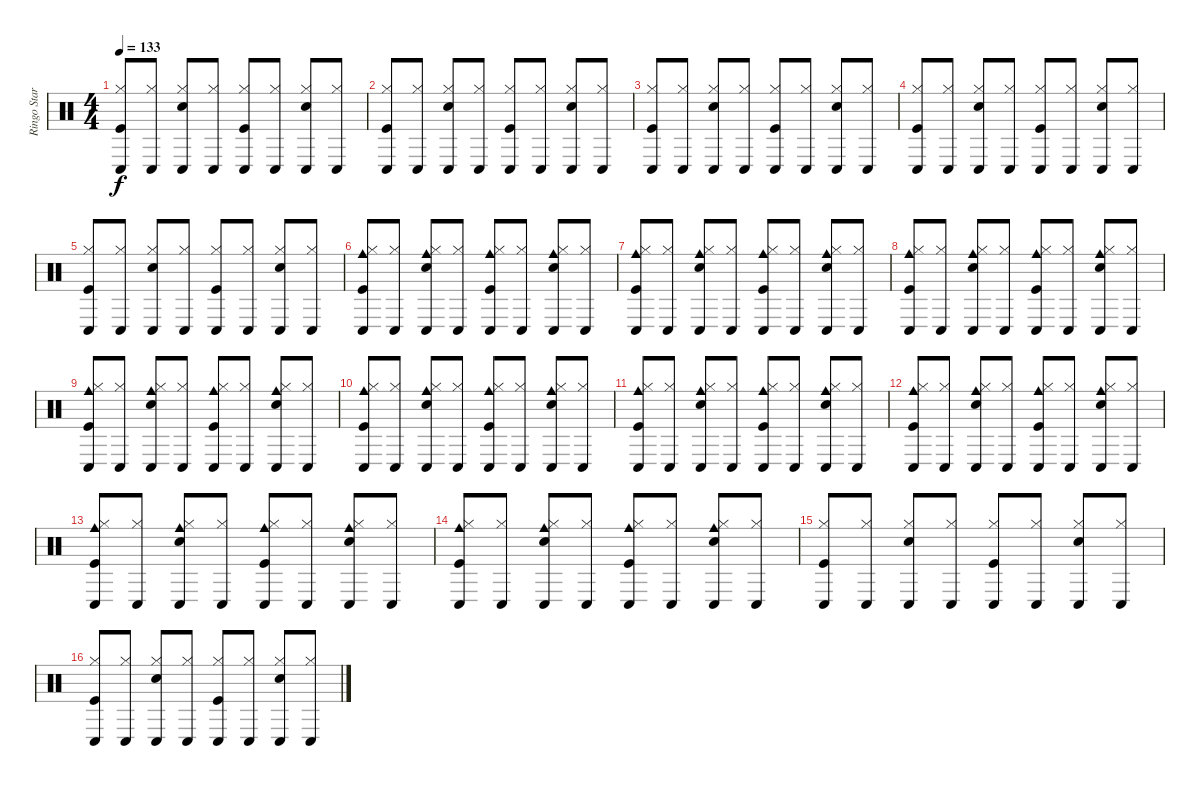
\track ("Ringo Starr - Drums" "Ringo Star") {instrument percussion}
\staff {score}
\articulation defaults
\ts (4 4)
\tempo 133
\clef neutral
\ks c
("Conga low (hit)" "Hi-Hat (closed)" "Kick (hit)").8{dy f} ("Conga low (hit)" "Hi-Hat (closed)").8 ("Conga low (hit)" "Hi-Hat (closed)" "Snare (hit) 2").8 ("Conga low (hit)" "Hi-Hat (closed)").8 ("Conga low (hit)" "Hi-Hat (closed)" "Kick (hit)").8 ("Conga low (hit)" "Hi-Hat (closed)").8 ("Conga low (hit)" "Hi-Hat (closed)" "Snare (hit) 2").8 ("Conga low (hit)" "Hi-Hat (closed)").8 |
("Conga low (hit)" "Hi-Hat (closed)" "Kick (hit)").8 ("Conga low (hit)" "Hi-Hat (closed)").8 ("Conga low (hit)" "Hi-Hat (closed)" "Snare (hit) 2").8 ("Conga low (hit)" "Hi-Hat (closed)").8 ("Conga low (hit)" "Hi-Hat (closed)" "Kick (hit)").8 ("Conga low (hit)" "Hi-Hat (closed)").8 ("Conga low (hit)" "Hi-Hat (closed)" "Snare (hit) 2").8 ("Conga low (hit)" "Hi-Hat (closed)").8 |
("Conga low (hit)" "Hi-Hat (closed)" "Kick (hit)").8 ("Conga low (hit)" "Hi-Hat (closed)").8 ("Conga low (hit)" "Hi-Hat (closed)" "Snare (hit) 2").8 ("Conga low (hit)" "Hi-Hat (closed)").8 ("Conga low (hit)" "Hi-Hat (closed)" "Kick (hit)").8 ("Conga low (hit)" "Hi-Hat (closed)").8 ("Conga low (hit)" "Hi-Hat (closed)" "Snare (hit) 2").8 ("Conga low (hit)" "Hi-Hat (closed)").8 |
("Kick (hit)" "Hi-Hat (closed)" "Conga low (hit)").8 ("Conga low (hit)" "Hi-Hat (closed)").8 ("Conga low (hit)" "Hi-Hat (closed)" "Snare (hit) 2").8 ("Conga low (hit)" "Hi-Hat (closed)").8 ("Conga low (hit)" "Hi-Hat (closed)" "Kick (hit)").8 ("Conga low (hit)" "Hi-Hat (closed)").8 ("Conga low (hit)" "Hi-Hat (closed)" "Snare (hit) 2").8 ("Conga low (hit)" "Hi-Hat (closed)").8 |
("Conga low (hit)" "Hi-Hat (closed)" "Kick (hit)").8 ("Conga low (hit)" "Hi-Hat (closed)").8 ("Conga low (hit)" "Hi-Hat (closed)" "Snare (hit) 2").8 ("Conga low (hit)" "Hi-Hat (closed)").8 ("Conga low (hit)" "Hi-Hat (closed)" "Kick (hit)").8 ("Conga low (hit)" "Hi-Hat (closed)").8 ("Conga low (hit)" "Hi-Hat (closed)" "Snare (hit) 2").8 ("Conga low (hit)" "Hi-Hat (closed)").8 |
("Kick (hit)" "Hi-Hat (closed)" "Conga low (hit)" "Cowbell medium (hit)").8 ("Conga low (hit)" "Hi-Hat (closed)").8 ("Conga low (hit)" "Hi-Hat (closed)" "Snare (hit) 2" "Cowbell medium (hit)").8 ("Conga low (hit)" "Hi-Hat (closed)").8 ("Conga low (hit)" "Hi-Hat (closed)" "Kick (hit)" "Cowbell medium (hit)").8 ("Conga low (hit)" "Hi-Hat (closed)").8 ("Conga low (hit)" "Hi-Hat (closed)" "Snare (hit) 2" "Cowbell medium (hit)").8 ("Conga low (hit)" "Hi-Hat (closed)").8 |
("Cowbell medium (hit)" "Conga low (hit)" "Hi-Hat (closed)" "Kick (hit)").8 ("Conga low (hit)" "Hi-Hat (closed)").8 ("Conga low (hit)" "Hi-Hat (closed)" "Snare (hit) 2" "Cowbell medium (hit)").8 ("Conga low (hit)" "Hi-Hat (closed)").8 ("Conga low (hit)" "Hi-Hat (closed)" "Kick (hit)" "Cowbell medium (hit)").8 ("Conga low (hit)" "Hi-Hat (closed)").8 ("Conga low (hit)" "Hi-Hat (closed)" "Snare (hit) 2" "Cowbell medium (hit)").8 ("Conga low (hit)" "Hi-Hat (closed)").8 |
("Cowbell medium (hit)" "Conga low (hit)" "Hi-Hat (closed)" "Kick (hit)").8 ("Conga low (hit)" "Hi-Hat (closed)").8 ("Conga low (hit)" "Hi-Hat (closed)" "Snare (hit) 2" "Cowbell medium (hit)").8 ("Conga low (hit)" "Hi-Hat (closed)").8 ("Conga low (hit)" "Hi-Hat (closed)" "Kick (hit)" "Cowbell medium (hit)").8 ("Conga low (hit)" "Hi-Hat (closed)").8 ("Conga low (hit)" "Hi-Hat (closed)" "Snare (hit) 2" "Cowbell medium (hit)").8 ("Conga low (hit)" "Hi-Hat (closed)").8 |
("Cowbell medium (hit)" "Conga low (hit)" "Hi-Hat (closed)" "Kick (hit)").8 ("Conga low (hit)" "Hi-Hat (closed)").8 ("Conga low (hit)" "Hi-Hat (closed)" "Snare (hit) 2" "Cowbell medium (hit)").8 ("Conga low (hit)" "Hi-Hat (closed)").8 ("Conga low (hit)" "Hi-Hat (closed)" "Kick (hit)" "Cowbell medium (hit)").8 ("Conga low (hit)" "Hi-Hat (closed)").8 ("Conga low (hit)" "Hi-Hat (closed)" "Snare (hit) 2" "Cowbell medium (hit)").8 ("Conga low (hit)" "Hi-Hat (closed)").8 |
("Cowbell medium (hit)" "Conga low (hit)" "Hi-Hat (closed)" "Kick (hit)").8 ("Conga low (hit)" "Hi-Hat (closed)").8 ("Conga low (hit)" "Hi-Hat (closed)" "Snare (hit) 2" "Cowbell medium (hit)").8 ("Conga low (hit)" "Hi-Hat (closed)").8 ("Conga low (hit)" "Hi-Hat (closed)" "Kick (hit)" "Cowbell medium (hit)").8 ("Conga low (hit)" "Hi-Hat (closed)").8 ("Conga low (hit)" "Hi-Hat (closed)" "Snare (hit) 2" "Cowbell medium (hit)").8 ("Conga low (hit)" "Hi-Hat (closed)").8 |
("Cowbell medium (hit)" "Conga low (hit)" "Hi-Hat (closed)" "Kick (hit)").8 ("Conga low (hit)" "Hi-Hat (closed)").8 ("Conga low (hit)" "Hi-Hat (closed)" "Snare (hit) 2" "Cowbell medium (hit)").8 ("Conga low (hit)" "Hi-Hat (closed)").8 ("Conga low (hit)" "Hi-Hat (closed)" "Kick (hit)" "Cowbell medium (hit)").8 ("Conga low (hit)" "Hi-Hat (closed)").8 ("Conga low (hit)" "Hi-Hat (closed)" "Snare (hit) 2" "Cowbell medium (hit)").8 ("Conga low (hit)" "Hi-Hat (closed)").8 |
("Cowbell medium (hit)" "Conga low (hit)" "Hi-Hat (closed)" "Kick (hit)").8 ("Conga low (hit)" "Hi-Hat (closed)").8 ("Conga low (hit)" "Hi-Hat (closed)" "Snare (hit) 2" "Cowbell medium (hit)").8 ("Conga low (hit)" "Hi-Hat (closed)").8 ("Conga low (hit)" "Hi-Hat (closed)" "Kick (hit)" "Cowbell medium (hit)").8 ("Conga low (hit)" "Hi-Hat (closed)").8 ("Conga low (hit)" "Hi-Hat (closed)" "Snare (hit) 2" "Cowbell medium (hit)").8 ("Conga low (hit)" "Hi-Hat (closed)").8 |
("Cowbell medium (hit)" "Conga low (hit)" "Hi-Hat (closed)" "Kick (hit)").8 ("Conga low (hit)" "Hi-Hat (closed)").8 ("Conga low (hit)" "Hi-Hat (closed)" "Snare (hit) 2" "Cowbell medium (hit)").8 ("Conga low (hit)" "Hi-Hat (closed)").8 ("Conga low (hit)" "Hi-Hat (closed)" "Kick (hit)" "Cowbell medium (hit)").8 ("Conga low (hit)" "Hi-Hat (closed)").8 ("Conga low (hit)" "Hi-Hat (closed)" "Snare (hit) 2" "Cowbell medium (hit)").8 ("Conga low (hit)" "Hi-Hat (closed)").8 |
("Cowbell medium (hit)" "Conga low (hit)" "Hi-Hat (closed)" "Kick (hit)").8 ("Conga low (hit)" "Hi-Hat (closed)").8 ("Conga low (hit)" "Hi-Hat (closed)" "Snare (hit) 2" "Cowbell medium (hit)").8 ("Conga low (hit)" "Hi-Hat (closed)").8 ("Conga low (hit)" "Hi-Hat (closed)" "Kick (hit)" "Cowbell medium (hit)").8 ("Conga low (hit)" "Hi-Hat (closed)").8 ("Conga low (hit)" "Hi-Hat (closed)" "Snare (hit) 2" "Cowbell medium (hit)").8 ("Conga low (hit)" "Hi-Hat (closed)").8 |
("Conga low (hit)" "Hi-Hat (closed)" "Kick (hit)").8 ("Conga low (hit)" "Hi-Hat (closed)").8 ("Conga low (hit)" "Hi-Hat (closed)" "Snare (hit) 2").8 ("Conga low (hit)" "Hi-Hat (closed)").8 ("Conga low (hit)" "Hi-Hat (closed)" "Kick (hit)").8 ("Conga low (hit)" "Hi-Hat (closed)").8 ("Conga low (hit)" "Hi-Hat (closed)" "Snare (hit) 2").8 ("Conga low (hit)" "Hi-Hat (closed)").8 |
("Kick (hit)" "Hi-Hat (closed)" "Conga low (hit)").8 ("Conga low (hit)" "Hi-Hat (closed)").8 ("Conga low (hit)" "Hi-Hat (closed)" "Snare (hit) 2").8 ("Conga low (hit)" "Hi-Hat (closed)").8 ("Conga low (hit)" "Hi-Hat (closed)" "Kick (hit)").8 ("Conga low (hit)" "Hi-Hat (closed)").8 ("Conga low (hit)" "Hi-Hat (closed)" "Snare (hit) 2").8 ("Conga low (hit)" "Hi-Hat (closed)").8
